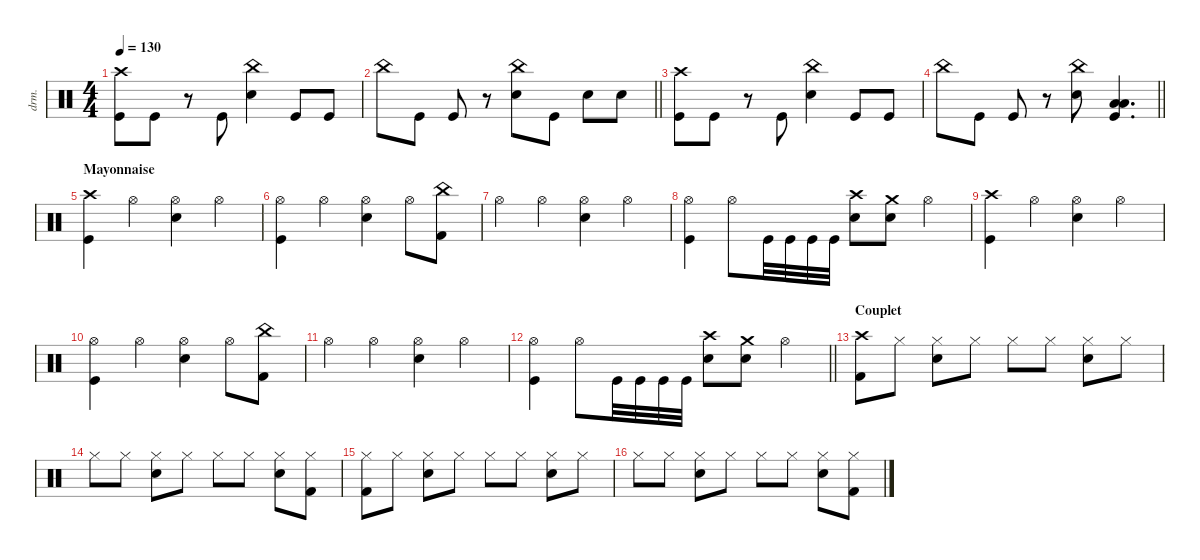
\defaultSystemsLayout 4
\hideDynamics
\bracketExtendMode nobrackets
\track ("Manouche" "drm.") {instrument percussion}
\staff {score}
\articulation defaults
\ts (4 4)
\tempo 130
\clef neutral
\ks c
("Crash high (hit)" "Kick (hit)").8{dy f beam Down} "Kick (hit)".8{beam Down} r.8{beam Down} "Kick (hit)".8{beam Up} ("China (hit)" "Snare (hit) 2").4{beam Down} "Kick (hit)".8{beam Up} "Kick (hit)".8{beam Up} |
\barLineRight lightlight "China (hit)".8{beam Down} "Kick (hit)".8{beam Down} "Kick (hit)".8{beam Up}
r.8{beam Up} ("China (hit)" "Snare (hit) 2").8{beam Down} "Kick (hit)".8{beam Down} "Snare (hit) 2".8{beam Down} "Snare (hit) 2".8{beam Down} |
("Crash high (hit)" "Kick (hit)").8{beam Down} "Kick (hit)".8{beam Down} r.8{beam Down} "Kick (hit)".8{beam Up} ("China (hit)" "Snare (hit) 2").4{beam Down} "Kick (hit)".8{beam Up} "Kick (hit)".8{beam Up} |
\barLineRight lightlight "China (hit)".8{beam Down} "Kick (hit)".8{beam Down} "Kick (hit)".8{beam Up}
r.8{beam Up} ("China (hit)" "Snare (hit) 2").8{beam Down} ("Low Tom (hit)" "Kick (hit)" "Low Floor Tom (hit)").4{d dy ff beam Up} |
\section ("" "Mayonnaise")
("Crash high (hit)" "Kick (hit)").4{dy f beam Down} "Hi-Hat (open)".4{beam Down} ("Hi-Hat (open)" "Snare (hit) 2").4{beam Down} "Hi-Hat (open)".4{beam Down} |
("Hi-Hat (open)" "Kick (hit)").4{beam Down} "Hi-Hat (open)".4{beam Down} ("Hi-Hat (open)" "Snare (hit) 2").4{beam Down} "Hi-Hat (open)".8{beam Down} ("China (hit)" "Kick (hit) 2").8{beam Down} |
"Hi-Hat (open)".4{beam Down} "Hi-Hat (open)".4{beam Down} ("Hi-Hat (open)" "Snare (hit) 2").4{beam Down} "Hi-Hat (open)".4{beam Down} |
("Hi-Hat (open)" "Kick (hit)").4{beam Down} "Hi-Hat (open)".8{beam Down} "Kick (hit)".32{beam Down} "Kick (hit)".32{beam Down} "Kick (hit)".32{beam Down} "Kick (hit)".32{beam Down} ("Snare (hit) 2" "Crash high (hit)").8{beam Down} ("Crash medium (hit)" "Snare (hit) 2").8{beam Down} "Hi-Hat (open)".4{beam Down} |
("Crash high (hit)" "Kick (hit)").4{beam Down} "Hi-Hat (open)".4{beam Down} ("Hi-Hat (open)" "Snare (hit) 2").4{beam Down} "Hi-Hat (open)".4{beam Down} |
("Hi-Hat (open)" "Kick (hit)").4{beam Down} "Hi-Hat (open)".4{beam Down} ("Hi-Hat (open)" "Snare (hit) 2").4{beam Down} "Hi-Hat (open)".8{beam Down} ("China (hit)" "Kick (hit) 2").8{beam Down} |
"Hi-Hat (open)".4{beam Down} "Hi-Hat (open)".4{beam Down} ("Hi-Hat (open)" "Snare (hit) 2").4{beam Down} "Hi-Hat (open)".4{beam Down} |
\barLineRight lightlight
("Hi-Hat (open)" "Kick (hit)").4{beam Down} "Hi-Hat (open)".8{beam Down} "Kick (hit)".32{beam Down} "Kick (hit)".32{beam Down} "Kick (hit)".32{beam Down} "Kick (hit)".32{beam Down} ("Snare (hit) 2" "Crash high (hit)").8{beam Down} ("Crash medium (hit)" "Snare (hit) 2").8{beam Down} "Hi-Hat (open)".4{beam Down} |
\section ("" "Couplet")
("Crash high (hit)" "Kick (hit) 2").8{beam Down} "Hi-Hat (closed)".8{dy mp beam Down} ("Hi-Hat (closed)" "Snare (hit) 2").8{dy f beam Down} "Hi-Hat (closed)".8{dy mp beam Down} "Hi-Hat (closed)".8{dy f beam Down} "Hi-Hat (closed)".8{dy mp beam Down} ("Hi-Hat (closed)" "Snare (hit) 2").8{dy f beam Down} "Hi-Hat (closed)".8{dy mp beam Down} |
"Hi-Hat (closed)".8{dy f beam Down} "Hi-Hat (closed)".8{dy mp beam Down} ("Hi-Hat (closed)" "Snare (hit) 2").8{dy f beam Down} "Hi-Hat (closed)".8{dy mp beam Down} "Hi-Hat (closed)".8{dy f beam Down} "Hi-Hat (closed)".8{dy mp beam Down} ("Hi-Hat (closed)" "Snare (hit) 2").8{dy f beam Down} ("Hi-Hat (closed)" "Kick (hit) 2").8{dy mp beam Down} |
("Hi-Hat (closed)" "Kick (hit) 2").8{beam Down} "Hi-Hat (closed)".8{beam Down} ("Hi-Hat (closed)" "Snare (hit) 2").8{dy f beam Down} "Hi-Hat (closed)".8{dy mp beam Down} "Hi-Hat (closed)".8{dy f beam Down} "Hi-Hat (closed)".8{dy mp beam Down} ("Hi-Hat (closed)" "Snare (hit) 2").8{dy f beam Down} "Hi-Hat (closed)".8{dy mp beam Down} |
"Hi-Hat (closed)".8{dy f beam Down} "Hi-Hat (closed)".8{dy mp beam Down} ("Hi-Hat (closed)" "Snare (hit) 2").8{dy f beam Down} "Hi-Hat (closed)".8{dy mp beam Down} "Hi-Hat (closed)".8{dy f beam Down} "Hi-Hat (closed)".8{dy mp beam Down} ("Hi-Hat (closed)" "Snare (hit) 2").8{dy f beam Down} ("Hi-Hat (closed)" "Kick (hit) 2").8{dy mp beam Down}
